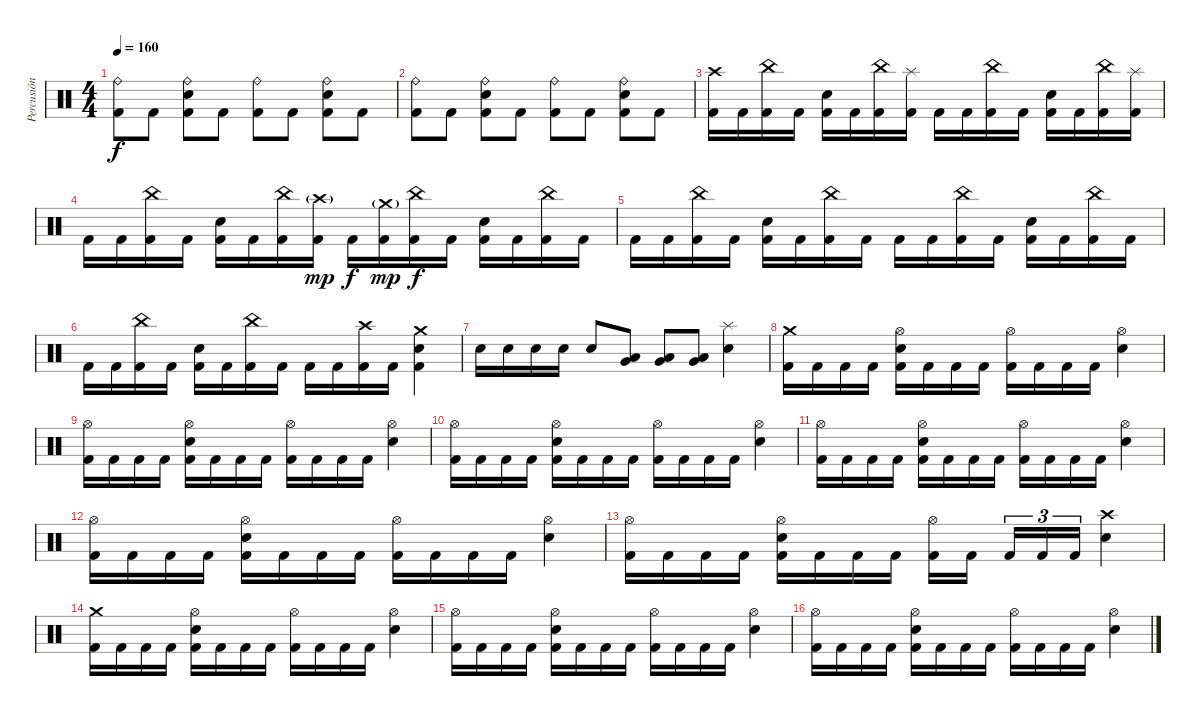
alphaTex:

\track ("Percusión" "Percusión") {instrument percussion}
\staff {score}
\articulation defaults
\ts (4 4)
\tempo 160
\clef neutral
\ks c
("Ride (bell)" "Kick (hit) 2").8{dy f} "Kick (hit) 2".8 ("Ride (bell)" "Electric Snare (hit)" "Kick (hit) 2").8 "Kick (hit) 2".8 ("Ride (bell)" "Kick (hit) 2").8 "Kick (hit) 2".8 ("Ride (bell)" "Electric Snare (hit)" "Kick (hit) 2").8 "Kick (hit) 2".8 |
("Ride (bell)" "Kick (hit) 2").8 "Kick (hit) 2".8 ("Ride (bell)" "Electric Snare (hit)" "Kick (hit) 2").8 "Kick (hit) 2".8 ("Ride (bell)" "Kick (hit) 2").8 "Kick (hit) 2".8 ("Ride (bell)" "Electric Snare (hit)" "Kick (hit) 2").8 "Kick (hit) 2".8 |
("Crash high (hit)" "Kick (hit) 2").16 "Kick (hit) 2".16 ("China (hit)" "Kick (hit) 2").16 "Kick (hit) 2".16 ("Electric Snare (hit)" "Kick (hit) 2").16 "Kick (hit) 2".16 ("China (hit)" "Kick (hit) 2").16 ("Splash (hit)" "Kick (hit) 2").16 "Kick (hit) 2".16 "Kick (hit) 2".16 ("China (hit)" "Kick (hit) 2").16 "Kick (hit) 2".16 ("Electric Snare (hit)" "Kick (hit) 2").16 "Kick (hit) 2".16 ("China (hit)" "Kick (hit) 2").16 ("Splash (hit)" "Kick (hit) 2").16 |
"Kick (hit) 2".16 "Kick (hit) 2".16 ("China (hit)" "Kick (hit) 2").16 "Kick (hit) 2".16 ("Electric Snare (hit)" "Kick (hit) 2").16 "Kick (hit) 2".16 ("China (hit)" "Kick (hit) 2").16 ("Crash high (hit)"{g} "Kick (hit) 2").16{dy mp} "Kick (hit) 2".16{dy f} ("Crash medium (hit)"{g} "Kick (hit) 2").16{dy mp} ("China (hit)" "Kick (hit) 2").16{dy f} "Kick (hit) 2".16 ("Electric Snare (hit)" "Kick (hit) 2").16 "Kick (hit) 2".16 ("China (hit)" "Kick (hit) 2").16 "Kick (hit) 2".16 |
"Kick (hit) 2".16 "Kick (hit) 2".16 ("China (hit)" "Kick (hit) 2").16 "Kick (hit) 2".16 ("Electric Snare (hit)" "Kick (hit) 2").16 "Kick (hit) 2".16 ("China (hit)" "Kick (hit) 2").16 "Kick (hit) 2".16 "Kick (hit) 2".16 "Kick (hit) 2".16 ("China (hit)" "Kick (hit) 2").16 "Kick (hit) 2".16 ("Electric Snare (hit)" "Kick (hit) 2").16 "Kick (hit) 2".16 ("China (hit)" "Kick (hit) 2").16 "Kick (hit) 2".16 |
"Kick (hit) 2".16 "Kick (hit) 2".16 ("China (hit)" "Kick (hit) 2").16 "Kick (hit) 2".16 ("Electric Snare (hit)" "Kick (hit) 2").16 "Kick (hit) 2".16 ("China (hit)" "Kick (hit) 2").16 "Kick (hit) 2".16 "Kick (hit) 2".16 "Kick (hit) 2".16 ("Crash high (hit)" "Kick (hit) 2").16 "Kick (hit) 2".16 ("Crash medium (hit)" "Electric Snare (hit)" "Kick (hit) 2").4 |
"Electric Snare (hit)".16 "Electric Snare (hit)".16 "Electric Snare (hit)".16 "Electric Snare (hit)".16 "Electric Snare (hit)".8 ("Low Floor Tom (hit)" "Very Low Tom (hit)").8 ("Low Floor Tom (hit)" "Very Low Tom (hit)").8 ("Low Floor Tom (hit)" "Very Low Tom (hit)").8 ("Splash (hit)" "Electric Snare (hit)").4 |
("Crash medium (hit)" "Kick (hit) 2").16 "Kick (hit) 2".16 "Kick (hit) 2".16 "Kick (hit) 2".16 ("Hi-Hat (open)" "Electric Snare (hit)" "Kick (hit) 2").16 "Kick (hit) 2".16 "Kick (hit) 2".16 "Kick (hit) 2".16 ("Hi-Hat (open)" "Kick (hit) 2").16 "Kick (hit) 2".16 "Kick (hit) 2".16 "Kick (hit) 2".16 ("Hi-Hat (open)" "Electric Snare (hit)").4 |
("Hi-Hat (open)" "Kick (hit) 2").16 "Kick (hit) 2".16 "Kick (hit) 2".16 "Kick (hit) 2".16 ("Hi-Hat (open)" "Electric Snare (hit)" "Kick (hit) 2").16 "Kick (hit) 2".16 "Kick (hit) 2".16 "Kick (hit) 2".16 ("Hi-Hat (open)" "Kick (hit) 2").16 "Kick (hit) 2".16 "Kick (hit) 2".16 "Kick (hit) 2".16 ("Hi-Hat (open)" "Electric Snare (hit)").4 |
("Hi-Hat (open)" "Kick (hit) 2").16 "Kick (hit) 2".16 "Kick (hit) 2".16 "Kick (hit) 2".16 ("Hi-Hat (open)" "Electric Snare (hit)" "Kick (hit) 2").16 "Kick (hit) 2".16 "Kick (hit) 2".16 "Kick (hit) 2".16 ("Hi-Hat (open)" "Kick (hit) 2").16 "Kick (hit) 2".16 "Kick (hit) 2".16 "Kick (hit) 2".16 ("Hi-Hat (open)" "Electric Snare (hit)").4 |
("Hi-Hat (open)" "Kick (hit) 2").16 "Kick (hit) 2".16 "Kick (hit) 2".16 "Kick (hit) 2".16 ("Hi-Hat (open)" "Electric Snare (hit)" "Kick (hit) 2").16 "Kick (hit) 2".16 "Kick (hit) 2".16 "Kick (hit) 2".16 ("Hi-Hat (open)" "Kick (hit) 2").16 "Kick (hit) 2".16 "Kick (hit) 2".16 "Kick (hit) 2".16 ("Hi-Hat (open)" "Electric Snare (hit)").4 |
("Hi-Hat (open)" "Kick (hit) 2").16 "Kick (hit) 2".16 "Kick (hit) 2".16 "Kick (hit) 2".16 ("Hi-Hat (open)" "Electric Snare (hit)" "Kick (hit) 2").16 "Kick (hit) 2".16 "Kick (hit) 2".16 "Kick (hit) 2".16 ("Hi-Hat (open)" "Kick (hit) 2").16 "Kick (hit) 2".16 "Kick (hit) 2".16 "Kick (hit) 2".16 ("Hi-Hat (open)" "Electric Snare (hit)").4 |
("Hi-Hat (open)" "Kick (hit) 2").16 "Kick (hit) 2".16 "Kick (hit) 2".16 "Kick (hit) 2".16 ("Hi-Hat (open)" "Electric Snare (hit)" "Kick (hit) 2").16 "Kick (hit) 2".16 "Kick (hit) 2".16 "Kick (hit) 2".16 ("Hi-Hat (open)" "Kick (hit) 2").16 "Kick (hit) 2".16{beam splitsecondary} "Kick (hit) 2".16{tu (3 2)} "Kick (hit) 2".16{tu (3 2)} "Kick (hit) 2".16{tu (3 2)} ("Crash high (hit)" "Electric Snare (hit)").4 |
("Crash medium (hit)" "Kick (hit) 2").16 "Kick (hit) 2".16 "Kick (hit) 2".16 "Kick (hit) 2".16 ("Hi-Hat (open)" "Electric Snare (hit)" "Kick (hit) 2").16 "Kick (hit) 2".16 "Kick (hit) 2".16 "Kick (hit) 2".16 ("Hi-Hat (open)" "Kick (hit) 2").16 "Kick (hit) 2".16 "Kick (hit) 2".16 "Kick (hit) 2".16 ("Hi-Hat (open)" "Electric Snare (hit)").4 |
("Hi-Hat (open)" "Kick (hit) 2").16 "Kick (hit) 2".16 "Kick (hit) 2".16 "Kick (hit) 2".16 ("Hi-Hat (open)" "Electric Snare (hit)" "Kick (hit) 2").16 "Kick (hit) 2".16 "Kick (hit) 2".16 "Kick (hit) 2".16 ("Hi-Hat (open)" "Kick (hit) 2").16 "Kick (hit) 2".16 "Kick (hit) 2".16 "Kick (hit) 2".16 ("Hi-Hat (open)" "Electric Snare (hit)").4 |
("Hi-Hat (open)" "Kick (hit) 2").16 "Kick (hit) 2".16 "Kick (hit) 2".16 "Kick (hit) 2".16 ("Hi-Hat (open)" "Electric Snare (hit)" "Kick (hit) 2").16 "Kick (hit) 2".16 "Kick (hit) 2".16 "Kick (hit) 2".16 ("Hi-Hat (open)" "Kick (hit) 2").16 "Kick (hit) 2".16 "Kick (hit) 2".16 "Kick (hit) 2".16 ("Hi-Hat (open)" "Electric Snare (hit)").4
